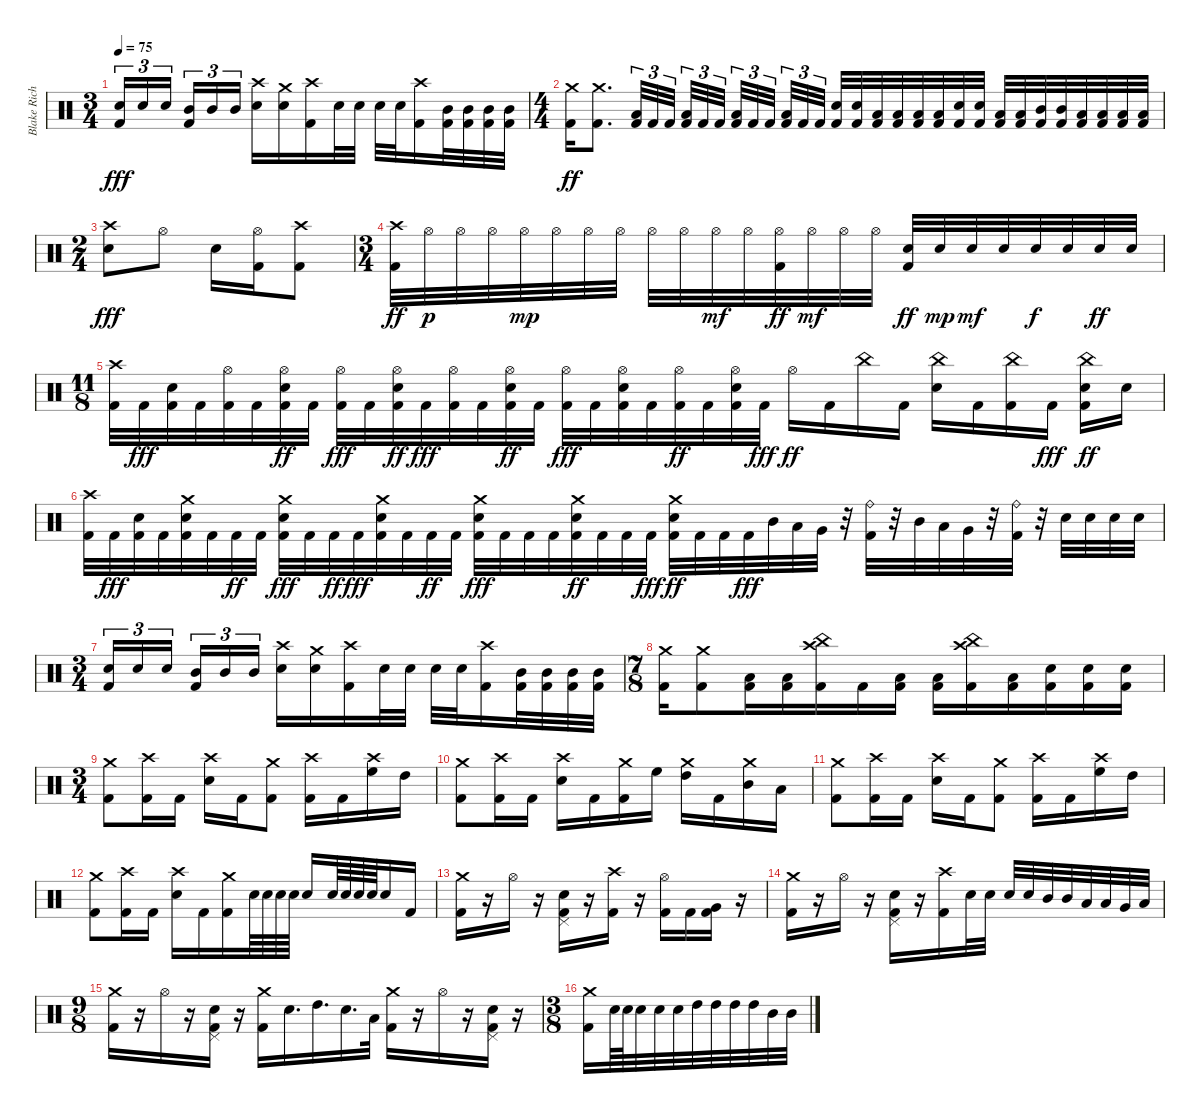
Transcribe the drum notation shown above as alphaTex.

\track ("Blake Richardson" "Blake Rich") {instrument percussion}
\staff {score}
\articulation defaults
\ts (3 4)
\tempo 75
\clef neutral
\ks c
("Electric Snare (hit)" "Kick (hit) 2").16{tu (3 2) dy fff} "Electric Snare (hit)".16{tu (3 2)} "Electric Snare (hit)".16{tu (3 2) beam splitsecondary} ("Mid Tom (hit)" "Kick (hit) 2").16{tu (3 2)} "Mid Tom (hit)".16{tu (3 2)} "Mid Tom (hit)".16{tu (3 2)} ("Crash high (hit)" "Electric Snare (hit)").16 ("Crash medium (hit)" "Electric Snare (hit)").16 ("Crash high (hit)" "Kick (hit) 2").16 "Electric Snare (hit)".32 "Electric Snare (hit)".32 "Electric Snare (hit)".32 "Electric Snare (hit)".32 ("Crash high (hit)" "Kick (hit) 2").16 ("Mid Tom (hit)" "Kick (hit) 2").32 ("Mid Tom (hit)" "Kick (hit) 2").32 ("Mid Tom (hit)" "Kick (hit) 2").32 ("Mid Tom (hit)" "Kick (hit) 2").32 |
\ts (4 4)
("Crash medium (hit)" "Kick (hit) 2").16{dy ff} ("Crash medium (hit)" "Kick (hit) 2").8{d} ("Low Tom (hit)" "Kick (hit) 2").32{tu (3 2)} "Kick (hit) 2".32{tu (3 2)} "Kick (hit) 2".32{tu (3 2) beam splitsecondary} ("Low Tom (hit)" "Kick (hit) 2").32{tu (3 2)} "Kick (hit) 2".32{tu (3 2)} "Kick (hit) 2".32{tu (3 2) beam splitsecondary} ("Low Tom (hit)" "Kick (hit) 2").32{tu (3 2)} "Kick (hit) 2".32{tu (3 2)} "Kick (hit) 2".32{tu (3 2) beam splitsecondary} ("Low Tom (hit)" "Kick (hit) 2").32{tu (3 2)} "Kick (hit) 2".32{tu (3 2)} "Kick (hit) 2".32{tu (3 2)} ("Electric Snare (hit)" "Kick (hit) 2").32 ("Electric Snare (hit)" "Kick (hit) 2").32 ("Low Tom (hit)" "Kick (hit) 2").32 ("Low Tom (hit)" "Kick (hit) 2").32 ("Low Tom (hit)" "Kick (hit) 2").32 ("Low Tom (hit)" "Kick (hit) 2").32 ("Electric Snare (hit)" "Kick (hit) 2").32 ("Electric Snare (hit)" "Kick (hit) 2").32 ("Low Tom (hit)" "Kick (hit) 2").32 ("Low Tom (hit)" "Kick (hit) 2").32 ("Mid Tom (hit)" "Kick (hit) 2").32 ("Mid Tom (hit)" "Kick (hit) 2").32 ("Low Tom (hit)" "Kick (hit) 2").32 ("Low Tom (hit)" "Kick (hit) 2").32 ("Low Tom (hit)" "Kick (hit) 2").32 ("Low Tom (hit)" "Kick (hit) 2").32 |
\ts (2 4)
("Crash high (hit)" "Electric Snare (hit)").8{dy fff} "Hi-Hat (open)".8 "Electric Snare (hit)".16 ("Hi-Hat (open)" "Kick (hit) 2").16 ("Crash high (hit)" "Kick (hit) 2").8 |
\ts (3 4)
("Crash high (hit)" "Kick (hit) 2").32{dy ff} "Hi-Hat (open)".32{dy p} "Hi-Hat (open)".32 "Hi-Hat (open)".32 "Hi-Hat (open)".32{dy mp} "Hi-Hat (open)".32 "Hi-Hat (open)".32 "Hi-Hat (open)".32 "Hi-Hat (open)".32 "Hi-Hat (open)".32 "Hi-Hat (open)".32{dy mf} "Hi-Hat (open)".32 ("Hi-Hat (open)" "Kick (hit) 2").32{dy ff} "Hi-Hat (open)".32{dy mf} "Hi-Hat (open)".32 "Hi-Hat (open)".32 ("Electric Snare (hit)" "Kick (hit) 2").32{dy ff} "Electric Snare (hit)".32{dy mp} "Electric Snare (hit)".32{dy mf} "Electric Snare (hit)".32 "Electric Snare (hit)".32{dy f} "Electric Snare (hit)".32 "Electric Snare (hit)".32{dy ff} "Electric Snare (hit)".32 |
\ts (11 8)
("Crash high (hit)" "Kick (hit) 2").32 "Kick (hit) 2".32{dy fff} ("Electric Snare (hit)" "Kick (hit) 2").32 "Kick (hit) 2".32 ("Hi-Hat (open)" "Kick (hit) 2").32 "Kick (hit) 2".32 ("Hi-Hat (open)" "Electric Snare (hit)" "Kick (hit) 2").32{dy ff} "Kick (hit) 2".32 ("Hi-Hat (open)" "Kick (hit) 2").32{dy fff} "Kick (hit) 2".32 ("Hi-Hat (open)" "Electric Snare (hit)" "Kick (hit) 2").32{dy ff} "Kick (hit) 2".32{dy fff} ("Hi-Hat (open)" "Kick (hit) 2").32 "Kick (hit) 2".32 ("Hi-Hat (open)" "Electric Snare (hit)" "Kick (hit) 2").32{dy ff} "Kick (hit) 2".32 ("Hi-Hat (open)" "Kick (hit) 2").32{dy fff} "Kick (hit) 2".32 ("Hi-Hat (open)" "Electric Snare (hit)" "Kick (hit) 2").32 "Kick (hit) 2".32 ("Hi-Hat (open)" "Kick (hit) 2").32{dy ff} "Kick (hit) 2".32 ("Hi-Hat (open)" "Electric Snare (hit)" "Kick (hit) 2").32 "Kick (hit) 2".32{dy fff} "Hi-Hat (open)".16{dy ff} "Kick (hit) 2".16 "China (hit)".16 "Kick (hit) 2".16 ("China (hit)" "Electric Snare (hit)").16 "Kick (hit) 2".16 ("China (hit)" "Kick (hit) 2").16 "Kick (hit) 2".16{dy fff} ("China (hit)" "Electric Snare (hit)" "Kick (hit) 2").16{dy ff} "Electric Snare (hit)".16 |
("Crash high (hit)" "Kick (hit) 2").32 "Kick (hit) 2".32{dy fff} ("Electric Snare (hit)" "Kick (hit) 2").32 "Kick (hit) 2".32 ("Crash medium (hit)" "Electric Snare (hit)" "Kick (hit) 2").32 "Kick (hit) 2".32 "Kick (hit) 2".32{dy ff} "Kick (hit) 2".32 ("Crash medium (hit)" "Electric Snare (hit)" "Kick (hit) 2").32{dy fff} "Kick (hit) 2".32 "Kick (hit) 2".32{dy ff} "Kick (hit) 2".32{dy fff} ("Crash medium (hit)" "Electric Snare (hit)" "Kick (hit) 2").32 "Kick (hit) 2".32 "Kick (hit) 2".32{dy ff} "Kick (hit) 2".32 ("Crash medium (hit)" "Electric Snare (hit)" "Kick (hit) 2").32{dy fff} "Kick (hit) 2".32 "Kick (hit) 2".32 "Kick (hit) 2".32 ("Crash medium (hit)" "Electric Snare (hit)" "Kick (hit) 2").32{dy ff} "Kick (hit) 2".32 "Kick (hit) 2".32 "Kick (hit) 2".32{dy fff} ("Crash medium (hit)" "Electric Snare (hit)" "Kick (hit) 2").32{dy ff} "Kick (hit) 2".32 "Kick (hit) 2".32 "Kick (hit) 2".32{dy fff} "Mid Tom (hit)".32 "Low Tom (hit)".32 "Very Low Tom (hit)".32 r.32 ("Ride (bell)" "Kick (hit) 2").32 r.32 "Mid Tom (hit)".32 "Low Tom (hit)".32 "Very Low Tom (hit)".32 r.32 ("Ride (bell)" "Kick (hit) 2").32 r.32 "Electric Snare (hit)".32 "Electric Snare (hit)".32 "Electric Snare (hit)".32 "Electric Snare (hit)".32 |
\ts (3 4)
("Electric Snare (hit)" "Kick (hit) 2").16{tu (3 2)} "Electric Snare (hit)".16{tu (3 2)} "Electric Snare (hit)".16{tu (3 2) beam splitsecondary} ("Mid Tom (hit)" "Kick (hit) 2").16{tu (3 2)} "Mid Tom (hit)".16{tu (3 2)} "Mid Tom (hit)".16{tu (3 2)} ("Crash high (hit)" "Electric Snare (hit)").16 ("Crash medium (hit)" "Electric Snare (hit)").16 ("Crash high (hit)" "Kick (hit) 2").16 "Electric Snare (hit)".32 "Electric Snare (hit)".32 "Electric Snare (hit)".32 "Electric Snare (hit)".32 ("Crash high (hit)" "Kick (hit) 2").16 ("Mid Tom (hit)" "Kick (hit) 2").32 ("Mid Tom (hit)" "Kick (hit) 2").32 ("Mid Tom (hit)" "Kick (hit) 2").32 ("Mid Tom (hit)" "Kick (hit) 2").32 |
\ts (7 8)
("Crash medium (hit)" "Kick (hit) 2").16 ("Crash medium (hit)" "Kick (hit) 2").8 ("Low Tom (hit)" "Kick (hit) 2").16 ("Low Tom (hit)" "Kick (hit) 2").16 ("China (hit)" "Crash high (hit)" "Kick (hit) 2").16 "Kick (hit) 2".16 ("Low Tom (hit)" "Kick (hit) 2").16 ("Low Tom (hit)" "Kick (hit) 2").16 ("China (hit)" "Crash high (hit)" "Kick (hit) 2").16 ("Low Tom (hit)" "Kick (hit) 2").16 ("Electric Snare (hit)" "Kick (hit) 2").16 ("Electric Snare (hit)" "Kick (hit) 2").16 ("Electric Snare (hit)" "Kick (hit) 2").16 |
\ts (3 4)
("Crash medium (hit)" "Kick (hit) 2").8 ("Crash high (hit)" "Kick (hit) 2").16 "Kick (hit) 2".16 ("Crash high (hit)" "Electric Snare (hit)").16 "Kick (hit) 2".16 ("Crash medium (hit)" "Kick (hit) 2").8 ("Crash high (hit)" "Kick (hit) 2").16 "Kick (hit) 2".16 ("Crash high (hit)" "High Floor Tom (hit)").16 "High Tom (hit)".16 |
("Crash medium (hit)" "Kick (hit) 2").8 ("Crash high (hit)" "Kick (hit) 2").16 "Kick (hit) 2".16 ("Crash high (hit)" "Electric Snare (hit)").16 "Kick (hit) 2".16 ("Crash medium (hit)" "Kick (hit) 2").16 "High Floor Tom (hit)".16 ("Crash medium (hit)" "High Tom (hit)").16 "Kick (hit) 2".16 ("Crash medium (hit)" "Mid Tom (hit)").16 "Low Tom (hit)".16 |
("Crash medium (hit)" "Kick (hit) 2").8 ("Crash high (hit)" "Kick (hit) 2").16 "Kick (hit) 2".16 ("Crash high (hit)" "Electric Snare (hit)").16 "Kick (hit) 2".16 ("Crash medium (hit)" "Kick (hit) 2").8 ("Crash high (hit)" "Kick (hit) 2").16 "Kick (hit) 2".16 ("Crash high (hit)" "High Floor Tom (hit)").16 "High Tom (hit)".16 |
("Crash medium (hit)" "Kick (hit) 2").8 ("Crash high (hit)" "Kick (hit) 2").16 "Kick (hit) 2".16 ("Crash high (hit)" "Electric Snare (hit)").16 "Kick (hit) 2".16 ("Crash medium (hit)" "Kick (hit) 2").16 "Electric Snare (hit)".64 "Electric Snare (hit)".64 "Electric Snare (hit)".64 "Electric Snare (hit)".64 "Electric Snare (hit)".16 "Electric Snare (hit)".64 "Electric Snare (hit)".64 "Electric Snare (hit)".64 "Electric Snare (hit)".64 "Electric Snare (hit)".16 "Kick (hit) 2".16 |
("Crash medium (hit)" "Kick (hit) 2").16 r.16 "Hi-Hat (open)".16 r.16 ("Pedal Hi-Hat (hit)" "Electric Snare (hit)" "Kick (hit) 2").16 r.16 ("Crash high (hit)" "Kick (hit) 2").16 r.16 ("Hi-Hat (open)" "Kick (hit) 2").16 "Kick (hit) 2".16 ("Very Low Tom (hit)" "Kick (hit) 2").16 r.16 |
("Crash medium (hit)" "Kick (hit) 2").16 r.16 "Hi-Hat (open)".16 r.16 ("Pedal Hi-Hat (hit)" "Electric Snare (hit)" "Kick (hit) 2").16 r.16 ("Crash high (hit)" "Kick (hit) 2").16 "Electric Snare (hit)".32 "Electric Snare (hit)".32 "Electric Snare (hit)".32 "Electric Snare (hit)".32 "Mid Tom (hit)".32 "Mid Tom (hit)".32 "Low Tom (hit)".32 "Low Tom (hit)".32 "Very Low Tom (hit)".32 "Low Floor Tom (hit)".32 |
\ts (9 8)
("Crash medium (hit)" "Kick (hit) 2").16 r.16 "Hi-Hat (open)".16 r.16 ("Pedal Hi-Hat (hit)" "Electric Snare (hit)" "Kick (hit) 2").16 r.16 ("Crash medium (hit)" "Kick (hit) 2").16 "Electric Snare (hit)".16{d} "High Tom (hit)".16{d} "Electric Snare (hit)".16{d} "Low Tom (hit)".32 ("Crash medium (hit)" "Kick (hit) 2").16 r.16 "Hi-Hat (open)".16 r.16 ("Pedal Hi-Hat (hit)" "Electric Snare (hit)" "Kick (hit) 2").16 r.16 |
\ts (3 8)
("Crash medium (hit)" "Kick (hit) 2").16 "Electric Snare (hit)".64 "Electric Snare (hit)".64 "Electric Snare (hit)".32 "Electric Snare (hit)".32 "Electric Snare (hit)".32 "High Tom (hit)".32 "High Tom (hit)".32 "High Tom (hit)".32 "High Tom (hit)".32 "Mid Tom (hit)".32 "Mid Tom (hit)".32
